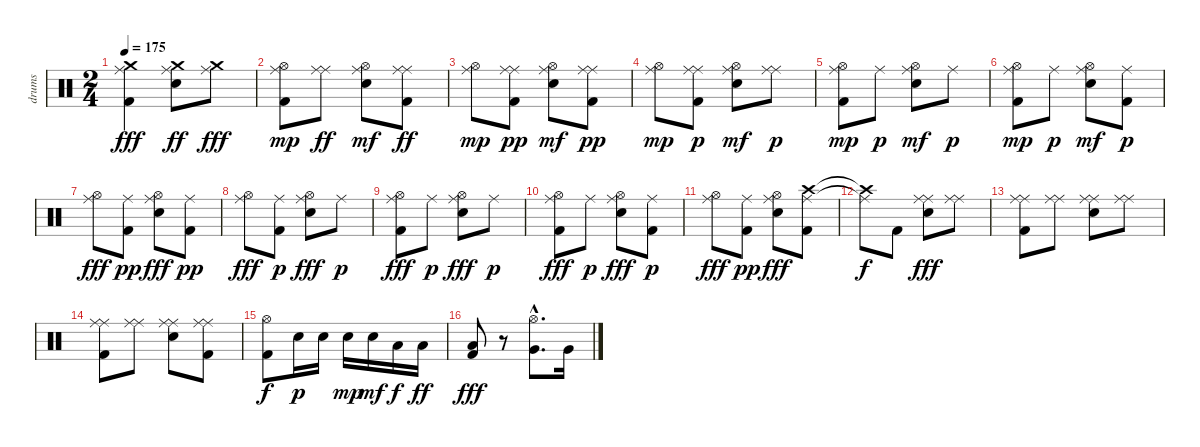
\track ("drums" "drums") {instrument percussion}
\staff {score}
\articulation defaults
\ts (2 4)
\tempo 175
\clef neutral
\ks c
("Crash medium (hit)" "Ride (middle)" "Kick (hit) 2").4{dy fff} ("Crash medium (hit)" "Ride (middle)" "Snare (hit) 2").8{dy ff} ("Crash medium (hit)" "Ride (middle)").8{dy fff} |
("Hi-Hat (open)" "Ride (middle)" "Kick (hit) 2").8{dy mp} ("Ride (middle)" "Ride (middle)").8{dy ff} ("Hi-Hat (open)" "Ride (middle)" "Snare (hit) 2").8{dy mf} ("Ride (middle)" "Ride (middle)" "Kick (hit) 2").8{dy ff} |
("Hi-Hat (open)" "Ride (middle)").8{dy mp} ("Ride (middle)" "Ride (middle)" "Kick (hit) 2").8{dy pp} ("Hi-Hat (open)" "Ride (middle)" "Snare (hit) 2").8{dy mf} ("Ride (middle)" "Ride (middle)" "Kick (hit) 2").8{dy pp} |
("Hi-Hat (open)" "Ride (middle)").8{dy mp} ("Ride (middle)" "Ride (middle)" "Kick (hit) 2").8{dy p} ("Hi-Hat (open)" "Ride (middle)" "Snare (hit) 2").8{dy mf} ("Ride (middle)" "Ride (middle)").8{dy p} |
("Hi-Hat (open)" "Ride (middle)" "Kick (hit) 2").8{dy mp} "Ride (middle)".8{dy p} ("Hi-Hat (open)" "Ride (middle)" "Snare (hit) 2").8{dy mf} "Ride (middle)".8{dy p} |
("Hi-Hat (open)" "Ride (middle)" "Kick (hit) 2").8{dy mp} "Ride (middle)".8{dy p} ("Hi-Hat (open)" "Ride (middle)" "Snare (hit) 2").8{dy mf} ("Ride (middle)" "Kick (hit) 2").8{dy p} |
("Hi-Hat (open)" "Ride (middle)").8{dy fff} ("Ride (middle)" "Kick (hit) 2").8{dy pp} ("Hi-Hat (open)" "Ride (middle)" "Snare (hit) 2").8{dy fff} ("Ride (middle)" "Kick (hit) 2").8{dy pp} |
("Hi-Hat (open)" "Ride (middle)").8{dy fff} ("Ride (middle)" "Kick (hit) 2").8{dy p} ("Hi-Hat (open)" "Ride (middle)" "Snare (hit) 2").8{dy fff} "Ride (middle)".8{dy p} |
("Hi-Hat (open)" "Ride (middle)" "Kick (hit) 2").8{dy fff} "Ride (middle)".8{dy p} ("Hi-Hat (open)" "Ride (middle)" "Snare (hit) 2").8{dy fff} "Ride (middle)".8{dy p} |
("Hi-Hat (open)" "Ride (middle)" "Kick (hit) 2").8{dy fff} "Ride (middle)".8{dy p} ("Hi-Hat (open)" "Ride (middle)" "Snare (hit) 2").8{dy fff} ("Ride (middle)" "Kick (hit) 2").8{dy p} |
("Hi-Hat (open)" "Ride (middle)").8{dy fff} ("Ride (middle)" "Kick (hit) 2").8{dy pp} ("Hi-Hat (open)" "Ride (middle)" "Snare (hit) 2").8{dy fff} ("Crash high (hit)" "Ride (middle)" "Kick (hit) 2").8 |
("Crash high (hit)"{t} "Ride (middle)"{t}).8{dy f} "Kick (hit) 2".8 ("Ride (middle)" "Ride (middle)" "Snare (hit) 2").8{dy fff} ("Ride (middle)" "Ride (middle)").8 |
("Ride (middle)" "Ride (middle)" "Kick (hit) 2").8 ("Ride (middle)" "Ride (middle)").8 ("Ride (middle)" "Ride (middle)" "Snare (hit) 2").8 ("Ride (middle)" "Ride (middle)").8 |
("Ride (middle)" "Ride (middle)" "Kick (hit) 2").8 ("Ride (middle)" "Ride (middle)").8 ("Ride (middle)" "Ride (middle)" "Snare (hit) 2").8 ("Ride (middle)" "Ride (middle)" "Kick (hit) 2").8 |
("Hi-Hat (open)" "Kick (hit) 2").8{dy f} "Snare (hit) 2".16{dy p} "Snare (hit) 2".16 "Snare (hit) 2".16{dy mp} "Snare (hit) 2".16{dy mf} "Low Tom (hit)".16{dy f} "Low Tom (hit)".16{dy ff} |
("Low Tom (hit)" "Kick (hit) 2").8{dy fff} r.8 ("Hi-Hat (open)"{hac} "Very Low Tom (hit)"{hac}).8{d} "Very Low Tom (hit)".16
